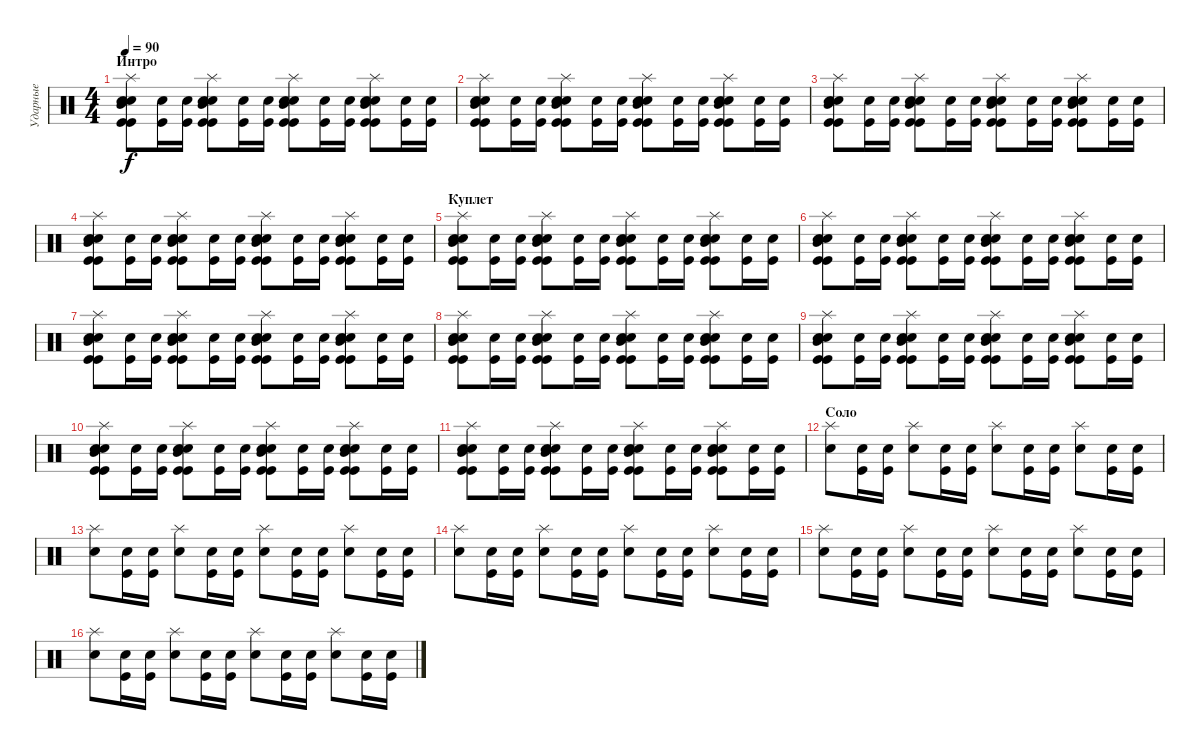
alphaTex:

\track ("Ударные" "Ударные") {instrument percussion}
\staff {score}
\articulation defaults
\ts (4 4)
\section ("" "Интро")
\tempo 90
\clef neutral
\ks c
("Kick (hit)" "Kick (hit)" "Mid Tom (hit)" "Electric Snare (hit)" "Snare (hit) 2" "Splash (hit)").8{dy f} ("Snare (hit) 2" "Kick (hit)").16 ("Snare (hit) 2" "Kick (hit)").16 ("Kick (hit)" "Kick (hit)" "Mid Tom (hit)" "Electric Snare (hit)" "Snare (hit) 2" "Splash (hit)").8 ("Snare (hit) 2" "Kick (hit)").16 ("Snare (hit) 2" "Kick (hit)").16 ("Kick (hit)" "Kick (hit)" "Mid Tom (hit)" "Electric Snare (hit)" "Snare (hit) 2" "Splash (hit)").8 ("Snare (hit) 2" "Kick (hit)").16 ("Snare (hit) 2" "Kick (hit)").16 ("Kick (hit)" "Kick (hit)" "Mid Tom (hit)" "Electric Snare (hit)" "Snare (hit) 2" "Splash (hit)").8 ("Snare (hit) 2" "Kick (hit)").16 ("Snare (hit) 2" "Kick (hit)").16 |
("Kick (hit)" "Kick (hit)" "Mid Tom (hit)" "Electric Snare (hit)" "Snare (hit) 2" "Splash (hit)").8 ("Snare (hit) 2" "Kick (hit)").16 ("Snare (hit) 2" "Kick (hit)").16 ("Kick (hit)" "Kick (hit)" "Mid Tom (hit)" "Electric Snare (hit)" "Snare (hit) 2" "Splash (hit)").8 ("Snare (hit) 2" "Kick (hit)").16 ("Snare (hit) 2" "Kick (hit)").16 ("Kick (hit)" "Kick (hit)" "Mid Tom (hit)" "Electric Snare (hit)" "Snare (hit) 2" "Splash (hit)").8 ("Snare (hit) 2" "Kick (hit)").16 ("Snare (hit) 2" "Kick (hit)").16 ("Kick (hit)" "Kick (hit)" "Mid Tom (hit)" "Electric Snare (hit)" "Snare (hit) 2" "Splash (hit)").8 ("Snare (hit) 2" "Kick (hit)").16 ("Snare (hit) 2" "Kick (hit)").16 |
("Kick (hit)" "Kick (hit)" "Mid Tom (hit)" "Electric Snare (hit)" "Snare (hit) 2" "Splash (hit)").8 ("Snare (hit) 2" "Kick (hit)").16 ("Snare (hit) 2" "Kick (hit)").16 ("Kick (hit)" "Kick (hit)" "Mid Tom (hit)" "Electric Snare (hit)" "Snare (hit) 2" "Splash (hit)").8 ("Snare (hit) 2" "Kick (hit)").16 ("Snare (hit) 2" "Kick (hit)").16 ("Kick (hit)" "Kick (hit)" "Mid Tom (hit)" "Electric Snare (hit)" "Snare (hit) 2" "Splash (hit)").8 ("Snare (hit) 2" "Kick (hit)").16 ("Snare (hit) 2" "Kick (hit)").16 ("Kick (hit)" "Kick (hit)" "Mid Tom (hit)" "Electric Snare (hit)" "Snare (hit) 2" "Splash (hit)").8 ("Snare (hit) 2" "Kick (hit)").16 ("Snare (hit) 2" "Kick (hit)").16 |
("Kick (hit)" "Kick (hit)" "Mid Tom (hit)" "Electric Snare (hit)" "Snare (hit) 2" "Splash (hit)").8 ("Snare (hit) 2" "Kick (hit)").16 ("Snare (hit) 2" "Kick (hit)").16 ("Kick (hit)" "Kick (hit)" "Mid Tom (hit)" "Electric Snare (hit)" "Snare (hit) 2" "Splash (hit)").8 ("Snare (hit) 2" "Kick (hit)").16 ("Snare (hit) 2" "Kick (hit)").16 ("Kick (hit)" "Kick (hit)" "Mid Tom (hit)" "Electric Snare (hit)" "Snare (hit) 2" "Splash (hit)").8 ("Snare (hit) 2" "Kick (hit)").16 ("Snare (hit) 2" "Kick (hit)").16 ("Kick (hit)" "Kick (hit)" "Mid Tom (hit)" "Electric Snare (hit)" "Snare (hit) 2" "Splash (hit)").8 ("Snare (hit) 2" "Kick (hit)").16 ("Snare (hit) 2" "Kick (hit)").16 |
\section ("" "Куплет")
("Kick (hit)" "Kick (hit)" "Mid Tom (hit)" "Electric Snare (hit)" "Snare (hit) 2" "Splash (hit)").8 ("Snare (hit) 2" "Kick (hit)").16 ("Snare (hit) 2" "Kick (hit)").16 ("Kick (hit)" "Kick (hit)" "Mid Tom (hit)" "Electric Snare (hit)" "Snare (hit) 2" "Splash (hit)").8 ("Snare (hit) 2" "Kick (hit)").16 ("Snare (hit) 2" "Kick (hit)").16 ("Kick (hit)" "Kick (hit)" "Mid Tom (hit)" "Electric Snare (hit)" "Snare (hit) 2" "Splash (hit)").8 ("Snare (hit) 2" "Kick (hit)").16 ("Snare (hit) 2" "Kick (hit)").16 ("Kick (hit)" "Kick (hit)" "Mid Tom (hit)" "Electric Snare (hit)" "Snare (hit) 2" "Splash (hit)").8 ("Snare (hit) 2" "Kick (hit)").16 ("Snare (hit) 2" "Kick (hit)").16 |
("Kick (hit)" "Kick (hit)" "Mid Tom (hit)" "Electric Snare (hit)" "Snare (hit) 2" "Splash (hit)").8 ("Snare (hit) 2" "Kick (hit)").16 ("Snare (hit) 2" "Kick (hit)").16 ("Kick (hit)" "Kick (hit)" "Mid Tom (hit)" "Electric Snare (hit)" "Snare (hit) 2" "Splash (hit)").8 ("Snare (hit) 2" "Kick (hit)").16 ("Snare (hit) 2" "Kick (hit)").16 ("Kick (hit)" "Kick (hit)" "Mid Tom (hit)" "Electric Snare (hit)" "Snare (hit) 2" "Splash (hit)").8 ("Snare (hit) 2" "Kick (hit)").16 ("Snare (hit) 2" "Kick (hit)").16 ("Kick (hit)" "Kick (hit)" "Mid Tom (hit)" "Electric Snare (hit)" "Snare (hit) 2" "Splash (hit)").8 ("Snare (hit) 2" "Kick (hit)").16 ("Snare (hit) 2" "Kick (hit)").16 |
("Kick (hit)" "Kick (hit)" "Mid Tom (hit)" "Electric Snare (hit)" "Snare (hit) 2" "Splash (hit)").8 ("Snare (hit) 2" "Kick (hit)").16 ("Snare (hit) 2" "Kick (hit)").16 ("Kick (hit)" "Kick (hit)" "Mid Tom (hit)" "Electric Snare (hit)" "Snare (hit) 2" "Splash (hit)").8 ("Snare (hit) 2" "Kick (hit)").16 ("Snare (hit) 2" "Kick (hit)").16 ("Kick (hit)" "Kick (hit)" "Mid Tom (hit)" "Electric Snare (hit)" "Snare (hit) 2" "Splash (hit)").8 ("Snare (hit) 2" "Kick (hit)").16 ("Snare (hit) 2" "Kick (hit)").16 ("Kick (hit)" "Kick (hit)" "Mid Tom (hit)" "Electric Snare (hit)" "Snare (hit) 2" "Splash (hit)").8 ("Snare (hit) 2" "Kick (hit)").16 ("Snare (hit) 2" "Kick (hit)").16 |
("Kick (hit)" "Kick (hit)" "Mid Tom (hit)" "Electric Snare (hit)" "Snare (hit) 2" "Splash (hit)").8 ("Snare (hit) 2" "Kick (hit)").16 ("Snare (hit) 2" "Kick (hit)").16 ("Kick (hit)" "Kick (hit)" "Mid Tom (hit)" "Electric Snare (hit)" "Snare (hit) 2" "Splash (hit)").8 ("Snare (hit) 2" "Kick (hit)").16 ("Snare (hit) 2" "Kick (hit)").16 ("Kick (hit)" "Kick (hit)" "Mid Tom (hit)" "Electric Snare (hit)" "Snare (hit) 2" "Splash (hit)").8 ("Snare (hit) 2" "Kick (hit)").16 ("Snare (hit) 2" "Kick (hit)").16 ("Kick (hit)" "Kick (hit)" "Mid Tom (hit)" "Electric Snare (hit)" "Snare (hit) 2" "Splash (hit)").8 ("Snare (hit) 2" "Kick (hit)").16 ("Snare (hit) 2" "Kick (hit)").16 |
("Kick (hit)" "Kick (hit)" "Mid Tom (hit)" "Electric Snare (hit)" "Snare (hit) 2" "Splash (hit)").8 ("Snare (hit) 2" "Kick (hit)").16 ("Snare (hit) 2" "Kick (hit)").16 ("Kick (hit)" "Kick (hit)" "Mid Tom (hit)" "Electric Snare (hit)" "Snare (hit) 2" "Splash (hit)").8 ("Snare (hit) 2" "Kick (hit)").16 ("Snare (hit) 2" "Kick (hit)").16 ("Kick (hit)" "Kick (hit)" "Mid Tom (hit)" "Electric Snare (hit)" "Snare (hit) 2" "Splash (hit)").8 ("Snare (hit) 2" "Kick (hit)").16 ("Snare (hit) 2" "Kick (hit)").16 ("Kick (hit)" "Kick (hit)" "Mid Tom (hit)" "Electric Snare (hit)" "Snare (hit) 2" "Splash (hit)").8 ("Snare (hit) 2" "Kick (hit)").16 ("Snare (hit) 2" "Kick (hit)").16 |
("Kick (hit)" "Kick (hit)" "Mid Tom (hit)" "Electric Snare (hit)" "Snare (hit) 2" "Splash (hit)").8 ("Snare (hit) 2" "Kick (hit)").16 ("Snare (hit) 2" "Kick (hit)").16 ("Kick (hit)" "Kick (hit)" "Mid Tom (hit)" "Electric Snare (hit)" "Snare (hit) 2" "Splash (hit)").8 ("Snare (hit) 2" "Kick (hit)").16 ("Snare (hit) 2" "Kick (hit)").16 ("Kick (hit)" "Kick (hit)" "Mid Tom (hit)" "Electric Snare (hit)" "Snare (hit) 2" "Splash (hit)").8 ("Snare (hit) 2" "Kick (hit)").16 ("Snare (hit) 2" "Kick (hit)").16 ("Kick (hit)" "Kick (hit)" "Mid Tom (hit)" "Electric Snare (hit)" "Snare (hit) 2" "Splash (hit)").8 ("Snare (hit) 2" "Kick (hit)").16 ("Snare (hit) 2" "Kick (hit)").16 |
("Kick (hit)" "Kick (hit)" "Mid Tom (hit)" "Electric Snare (hit)" "Snare (hit) 2" "Splash (hit)").8 ("Snare (hit) 2" "Kick (hit)").16 ("Snare (hit) 2" "Kick (hit)").16 ("Kick (hit)" "Kick (hit)" "Mid Tom (hit)" "Electric Snare (hit)" "Snare (hit) 2" "Splash (hit)").8 ("Snare (hit) 2" "Kick (hit)").16 ("Snare (hit) 2" "Kick (hit)").16 ("Kick (hit)" "Kick (hit)" "Mid Tom (hit)" "Electric Snare (hit)" "Snare (hit) 2" "Splash (hit)").8 ("Snare (hit) 2" "Kick (hit)").16 ("Snare (hit) 2" "Kick (hit)").16 ("Kick (hit)" "Kick (hit)" "Mid Tom (hit)" "Electric Snare (hit)" "Snare (hit) 2" "Splash (hit)").8 ("Snare (hit) 2" "Kick (hit)").16 ("Snare (hit) 2" "Kick (hit)").16 |
\section ("" "Соло")
("Snare (hit) 2" "Splash (hit)").8 ("Snare (hit) 2" "Kick (hit)").16 ("Snare (hit) 2" "Kick (hit)").16 ("Snare (hit) 2" "Splash (hit)").8 ("Snare (hit) 2" "Kick (hit)").16 ("Snare (hit) 2" "Kick (hit)").16 ("Snare (hit) 2" "Splash (hit)").8 ("Snare (hit) 2" "Kick (hit)").16 ("Snare (hit) 2" "Kick (hit)").16 ("Snare (hit) 2" "Splash (hit)").8 ("Snare (hit) 2" "Kick (hit)").16 ("Snare (hit) 2" "Kick (hit)").16 |
("Snare (hit) 2" "Splash (hit)").8 ("Snare (hit) 2" "Kick (hit)").16 ("Snare (hit) 2" "Kick (hit)").16 ("Snare (hit) 2" "Splash (hit)").8 ("Snare (hit) 2" "Kick (hit)").16 ("Snare (hit) 2" "Kick (hit)").16 ("Snare (hit) 2" "Splash (hit)").8 ("Snare (hit) 2" "Kick (hit)").16 ("Snare (hit) 2" "Kick (hit)").16 ("Snare (hit) 2" "Splash (hit)").8 ("Snare (hit) 2" "Kick (hit)").16 ("Snare (hit) 2" "Kick (hit)").16 |
("Snare (hit) 2" "Splash (hit)").8 ("Snare (hit) 2" "Kick (hit)").16 ("Snare (hit) 2" "Kick (hit)").16 ("Snare (hit) 2" "Splash (hit)").8 ("Snare (hit) 2" "Kick (hit)").16 ("Snare (hit) 2" "Kick (hit)").16 ("Snare (hit) 2" "Splash (hit)").8 ("Snare (hit) 2" "Kick (hit)").16 ("Snare (hit) 2" "Kick (hit)").16 ("Snare (hit) 2" "Splash (hit)").8 ("Snare (hit) 2" "Kick (hit)").16 ("Snare (hit) 2" "Kick (hit)").16 |
("Snare (hit) 2" "Splash (hit)").8 ("Snare (hit) 2" "Kick (hit)").16 ("Snare (hit) 2" "Kick (hit)").16 ("Snare (hit) 2" "Splash (hit)").8 ("Snare (hit) 2" "Kick (hit)").16 ("Snare (hit) 2" "Kick (hit)").16 ("Snare (hit) 2" "Splash (hit)").8 ("Snare (hit) 2" "Kick (hit)").16 ("Snare (hit) 2" "Kick (hit)").16 ("Snare (hit) 2" "Splash (hit)").8 ("Snare (hit) 2" "Kick (hit)").16 ("Snare (hit) 2" "Kick (hit)").16 |
("Snare (hit) 2" "Splash (hit)").8 ("Snare (hit) 2" "Kick (hit)").16 ("Snare (hit) 2" "Kick (hit)").16 ("Snare (hit) 2" "Splash (hit)").8 ("Snare (hit) 2" "Kick (hit)").16 ("Snare (hit) 2" "Kick (hit)").16 ("Snare (hit) 2" "Splash (hit)").8 ("Snare (hit) 2" "Kick (hit)").16 ("Snare (hit) 2" "Kick (hit)").16 ("Snare (hit) 2" "Splash (hit)").8 ("Snare (hit) 2" "Kick (hit)").16 ("Snare (hit) 2" "Kick (hit)").16
